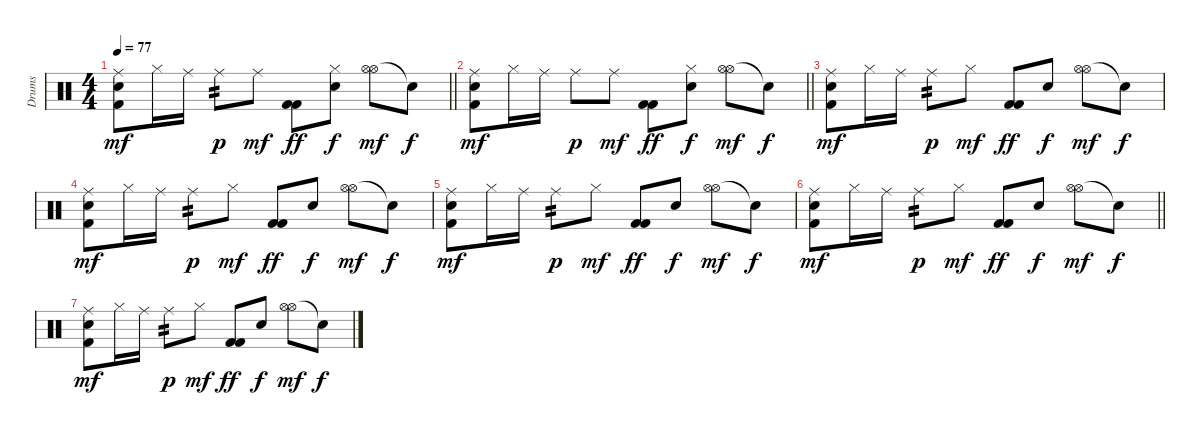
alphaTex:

\track ("Drums" "Drums") {instrument percussion}
\staff {score}
\articulation defaults
\ts (4 4)
\tempo 77
\clef neutral
\barLineRight lightlight
\ks c
("Ride (middle)" "Electric Snare (hit)" "Kick (hit) 2").8{dy mf} "Hi-Hat (closed)".16 "Ride (middle)".16 "Ride (middle)".8{tp 2 dy p} "Ride (middle)".8{dy mf} ("Kick (hit) 2" "Kick (hit) 2").8{dy ff} ("Hi-Hat (closed)" "Snare (hit) 2").8{dy f} ("Hi-Hat (open)" "Hi-Hat (open)").8{dy mf} "Snare (hit)"{t}.8{dy f} |
\barLineRight lightlight
("Ride (middle)" "Electric Snare (hit)" "Kick (hit) 2").8{dy mf} "Hi-Hat (closed)".16 "Ride (middle)".16 "Ride (middle)".8{dy p} "Ride (middle)".8{dy mf} ("Kick (hit) 2" "Kick (hit) 2").8{dy ff} ("Hi-Hat (closed)" "Snare (hit) 2").8{dy f} ("Hi-Hat (open)" "Hi-Hat (open)").8{dy mf} "Snare (hit)"{t}.8{dy f} |
("Ride (middle)" "Electric Snare (hit)" "Kick (hit) 2").8{dy mf} "Hi-Hat (closed)".16 "Ride (middle)".16 "Ride (middle)".8{tp 2 dy p} "Hi-Hat (closed)".8{dy mf} ("Kick (hit) 2" "Kick (hit) 2").8{dy ff} "Snare (hit) 2".8{dy f} ("Hi-Hat (open)" "Hi-Hat (open)").8{dy mf} "Snare (hit)"{t}.8{dy f} |
("Ride (middle)" "Electric Snare (hit)" "Kick (hit) 2").8{dy mf} "Hi-Hat (closed)".16 "Ride (middle)".16 "Ride (middle)".8{tp 2 dy p} "Hi-Hat (closed)".8{dy mf} ("Kick (hit) 2" "Kick (hit) 2").8{dy ff} "Snare (hit) 2".8{dy f} ("Hi-Hat (open)" "Hi-Hat (open)").8{dy mf} "Snare (hit)"{t}.8{dy f} |
("Ride (middle)" "Electric Snare (hit)" "Kick (hit) 2").8{dy mf} "Hi-Hat (closed)".16 "Ride (middle)".16 "Ride (middle)".8{tp 2 dy p} "Hi-Hat (closed)".8{dy mf} ("Kick (hit) 2" "Kick (hit) 2").8{dy ff} "Snare (hit) 2".8{dy f} ("Hi-Hat (open)" "Hi-Hat (open)").8{dy mf} "Snare (hit)"{t}.8{dy f} |
\barLineRight lightlight
("Ride (middle)" "Electric Snare (hit)" "Kick (hit) 2").8{dy mf} "Hi-Hat (closed)".16 "Ride (middle)".16 "Ride (middle)".8{tp 2 dy p} "Hi-Hat (closed)".8{dy mf} ("Kick (hit) 2" "Kick (hit) 2").8{dy ff} "Snare (hit) 2".8{dy f} ("Hi-Hat (open)" "Hi-Hat (open)").8{dy mf} "Snare (hit)"{t}.8{dy f} |
("Ride (middle)" "Electric Snare (hit)" "Kick (hit) 2").8{dy mf} "Hi-Hat (closed)".16 "Ride (middle)".16 "Ride (middle)".8{tp 2 dy p} "Hi-Hat (closed)".8{dy mf} ("Kick (hit) 2" "Kick (hit) 2").8{dy ff} "Snare (hit) 2".8{dy f} ("Hi-Hat (open)" "Hi-Hat (open)").8{dy mf} "Snare (hit)"{t}.8{dy f}
